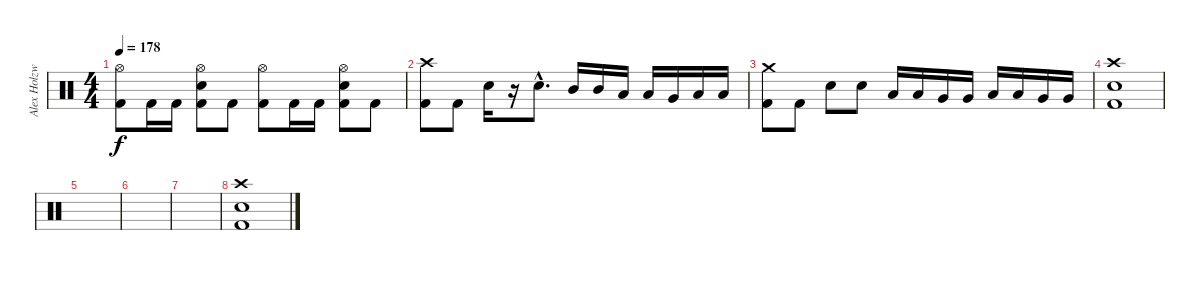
\track ("Alex Holzwarth" "Alex Holzw") {instrument percussion}
\staff {score}
\articulation defaults
\ts (4 4)
\tempo 178
\clef neutral
\ks c
("Hi-Hat (open)" "Kick (hit) 2").8{dy f} "Kick (hit) 2".16 "Kick (hit) 2".16 ("Hi-Hat (open)" "Snare (hit) 2" "Kick (hit) 2").8 "Kick (hit) 2".8 ("Hi-Hat (open)" "Kick (hit) 2").8 "Kick (hit) 2".16 "Kick (hit) 2".16 ("Hi-Hat (open)" "Snare (hit) 2" "Kick (hit) 2").8 "Kick (hit) 2".8 |
("Crash high (hit)" "Kick (hit) 2").8 "Kick (hit) 2".8 "Snare (hit) 2".16 r.16 "Snare (hit) 2"{hac}.8{d} "Mid Tom (hit)".16 "Mid Tom (hit)".16 "Low Tom (hit)".16 "Low Tom (hit)".16 "Very Low Tom (hit)".16 "Low Floor Tom (hit)".16 "Low Floor Tom (hit)".16 |
("Crash medium (hit)" "Kick (hit) 2").8 "Kick (hit) 2".8 "Snare (hit) 2".8 "Snare (hit) 2".8 "Low Tom (hit)".16 "Low Tom (hit)".16 "Very Low Tom (hit)".16 "Very Low Tom (hit)".16 "Low Tom (hit)".16 "Low Tom (hit)".16 "Very Low Tom (hit)".16 "Very Low Tom (hit)".16 |
("Crash high (hit)" "Snare (hit) 2" "Kick (hit) 2").1 |
|
|
|
("Crash high (hit)" "Snare (hit) 2" "Kick (hit) 2").1
